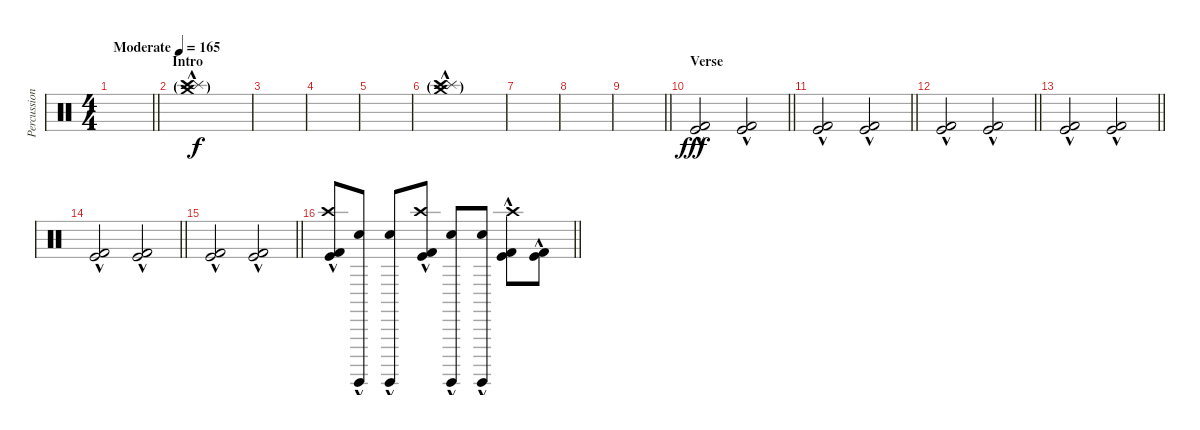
\track ("Percussion" "Percussion") {instrument percussion}
\staff {score}
\articulation defaults
\ts (4 4)
\tempo (165 "Moderate")
\clef neutral
\barLineRight lightlight
\ks c
|
\section ("" "Intro")
("Splash (hit)"{hac} "Crash medium (hit)"{g} "Crash high (hit)"{g}).1 |
|
|
|
("Splash (hit)"{hac} "Crash medium (hit)"{g} "Crash high (hit)"{g}).1 |
|
|
\barLineRight lightlight
|
\section ("" "Verse")
\barLineRight lightlight
("Kick (hit) 2"{hac} "Kick (hit)"{hac}).2{dy fff} ("Kick (hit) 2"{hac} "Kick (hit)"{hac}).2 |
\barLineRight lightlight
("Kick (hit) 2"{hac} "Kick (hit)"{hac}).2 ("Kick (hit) 2"{hac} "Kick (hit)"{hac}).2 |
\barLineRight lightlight
("Kick (hit) 2"{hac} "Kick (hit)"{hac}).2 ("Kick (hit) 2"{hac} "Kick (hit)"{hac}).2 |
\barLineRight lightlight
("Kick (hit) 2"{hac} "Kick (hit)"{hac}).2 ("Kick (hit) 2"{hac} "Kick (hit)"{hac}).2 |
\barLineRight lightlight
("Kick (hit) 2"{hac} "Kick (hit)"{hac}).2 ("Kick (hit) 2"{hac} "Kick (hit)"{hac}).2 |
\barLineRight lightlight
("Kick (hit) 2"{hac} "Kick (hit)"{hac}).2 ("Kick (hit) 2"{hac} "Kick (hit)"{hac}).2 |
\barLineRight lightlight
("Crash high (hit)"{hac} "Kick (hit) 2"{hac} "Kick (hit)"{hac}).8 ("Electric Snare (hit)"{hac} "Surdo (hit)"{hac}).8 ("Electric Snare (hit)"{hac} "Surdo (hit)"{hac}).8 ("Crash high (hit)"{hac} "Kick (hit) 2"{hac} "Kick (hit)"{hac}).8 ("Electric Snare (hit)"{hac} "Surdo (hit)"{hac}).8 ("Electric Snare (hit)"{hac} "Surdo (hit)"{hac}).8 ("Crash high (hit)"{hac} "Kick (hit) 2"{hac} "Kick (hit)"{hac}).8 ("Kick (hit) 2"{hac} "Kick (hit)"{hac}).8
